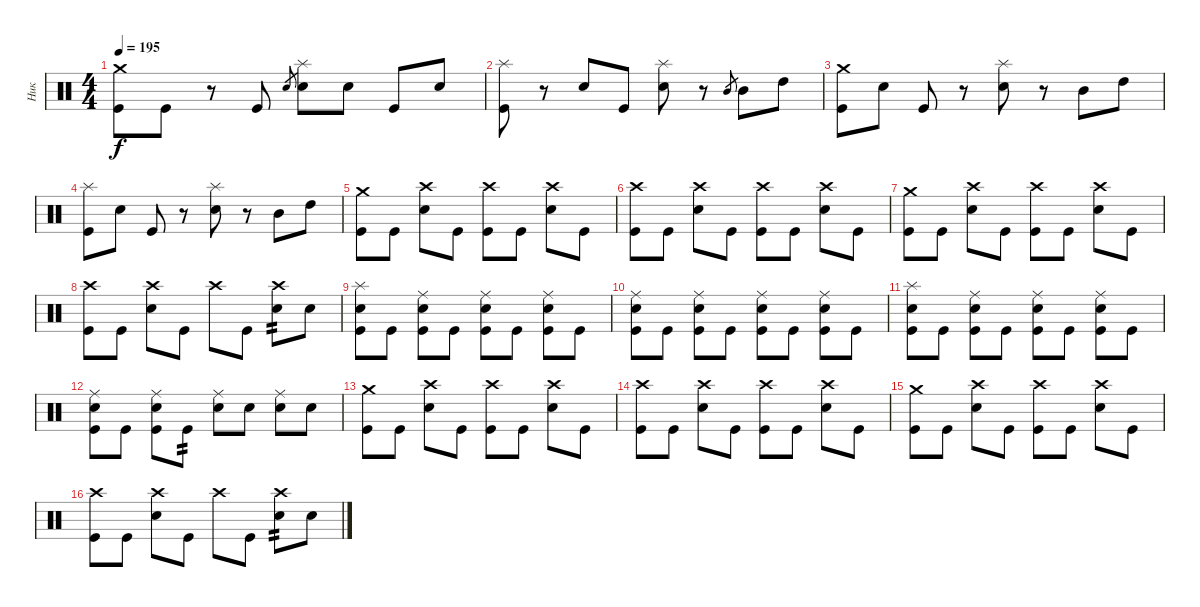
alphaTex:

\track ("Ник" "Ник") {instrument percussion}
\staff {score}
\articulation defaults
\ts (4 4)
\tempo 195
\clef neutral
\ks c
("Crash medium (hit)" "Kick (hit)").8{dy f} "Kick (hit)".8 r.8 "Kick (hit)".8 "Snare (hit) 2".8{gr} ("Splash (hit)" "Snare (hit) 2").8 "Snare (hit) 2".8 "Kick (hit)".8 "Snare (hit) 2".8 |
("Splash (hit)" "Kick (hit)").8 r.8 "Snare (hit) 2".8 "Kick (hit)".8 ("Splash (hit)" "Snare (hit) 2").8 r.8 "Mid Tom (hit)".8{gr} "Mid Tom (hit)".8 "High Tom (hit)".8 |
("Crash medium (hit)" "Kick (hit)").8 "Snare (hit) 2".8 "Kick (hit)".8 r.8 ("Splash (hit)" "Snare (hit) 2").8 r.8 "Mid Tom (hit)".8 "High Tom (hit)".8 |
("Splash (hit)" "Kick (hit)").8 "Snare (hit) 2".8 "Kick (hit)".8 r.8 ("Splash (hit)" "Snare (hit) 2").8 r.8 "Mid Tom (hit)".8 "High Tom (hit)".8 |
("Crash medium (hit)" "Kick (hit)").8 "Kick (hit)".8 ("Crash high (hit)" "Snare (hit) 2").8 "Kick (hit)".8 ("Crash high (hit)" "Kick (hit)").8 "Kick (hit)".8 ("Crash high (hit)" "Snare (hit) 2").8 "Kick (hit)".8 |
("Crash high (hit)" "Kick (hit)").8 "Kick (hit)".8 ("Crash high (hit)" "Snare (hit) 2").8 "Kick (hit)".8 ("Crash high (hit)" "Kick (hit)").8 "Kick (hit)".8 ("Crash high (hit)" "Snare (hit) 2").8 "Kick (hit)".8 |
("Crash medium (hit)" "Kick (hit)").8 "Kick (hit)".8 ("Crash high (hit)" "Snare (hit) 2").8 "Kick (hit)".8 ("Crash high (hit)" "Kick (hit)").8 "Kick (hit)".8 ("Crash high (hit)" "Snare (hit) 2").8 "Kick (hit)".8 |
("Crash high (hit)" "Kick (hit)").8 "Kick (hit)".8 ("Crash high (hit)" "Snare (hit) 2").8 "Kick (hit)".8 "Crash high (hit)".8 "Kick (hit)".8 ("Crash high (hit)" "Snare (hit) 2").8{tp 2} "Snare (hit) 2".8 |
("Splash (hit)" "Snare (hit) 2" "Kick (hit)").8 "Kick (hit)".8 ("Ride (middle)" "Snare (hit) 2" "Kick (hit)").8 "Kick (hit)".8 ("Ride (middle)" "Snare (hit) 2" "Kick (hit)").8 "Kick (hit)".8 ("Ride (middle)" "Snare (hit) 2" "Kick (hit)").8 "Kick (hit)".8 |
("Ride (middle)" "Snare (hit) 2" "Kick (hit)").8 "Kick (hit)".8 ("Ride (middle)" "Snare (hit) 2" "Kick (hit)").8 "Kick (hit)".8 ("Ride (middle)" "Snare (hit) 2" "Kick (hit)").8 "Kick (hit)".8 ("Ride (middle)" "Snare (hit) 2" "Kick (hit)").8 "Kick (hit)".8 |
("Splash (hit)" "Snare (hit) 2" "Kick (hit)").8 "Kick (hit)".8 ("Ride (middle)" "Snare (hit) 2" "Kick (hit)").8 "Kick (hit)".8 ("Ride (middle)" "Snare (hit) 2" "Kick (hit)").8 "Kick (hit)".8 ("Ride (middle)" "Snare (hit) 2" "Kick (hit)").8 "Kick (hit)".8 |
("Ride (middle)" "Snare (hit) 2" "Kick (hit)").8 "Kick (hit)".8 ("Ride (middle)" "Snare (hit) 2" "Kick (hit)").8 "Kick (hit)".8{tp 2} ("Ride (middle)" "Snare (hit) 2").8 "Snare (hit) 2".8 ("Ride (middle)" "Snare (hit) 2").8 "Snare (hit) 2".8 |
("Crash medium (hit)" "Kick (hit)").8 "Kick (hit)".8 ("Crash high (hit)" "Snare (hit) 2").8 "Kick (hit)".8 ("Crash high (hit)" "Kick (hit)").8 "Kick (hit)".8 ("Crash high (hit)" "Snare (hit) 2").8 "Kick (hit)".8 |
("Crash high (hit)" "Kick (hit)").8 "Kick (hit)".8 ("Crash high (hit)" "Snare (hit) 2").8 "Kick (hit)".8 ("Crash high (hit)" "Kick (hit)").8 "Kick (hit)".8 ("Crash high (hit)" "Snare (hit) 2").8 "Kick (hit)".8 |
("Crash medium (hit)" "Kick (hit)").8 "Kick (hit)".8 ("Crash high (hit)" "Snare (hit) 2").8 "Kick (hit)".8 ("Crash high (hit)" "Kick (hit)").8 "Kick (hit)".8 ("Crash high (hit)" "Snare (hit) 2").8 "Kick (hit)".8 |
("Crash high (hit)" "Kick (hit)").8 "Kick (hit)".8 ("Crash high (hit)" "Snare (hit) 2").8 "Kick (hit)".8 "Crash high (hit)".8 "Kick (hit)".8 ("Crash high (hit)" "Snare (hit) 2").8{tp 2} "Snare (hit) 2".8
